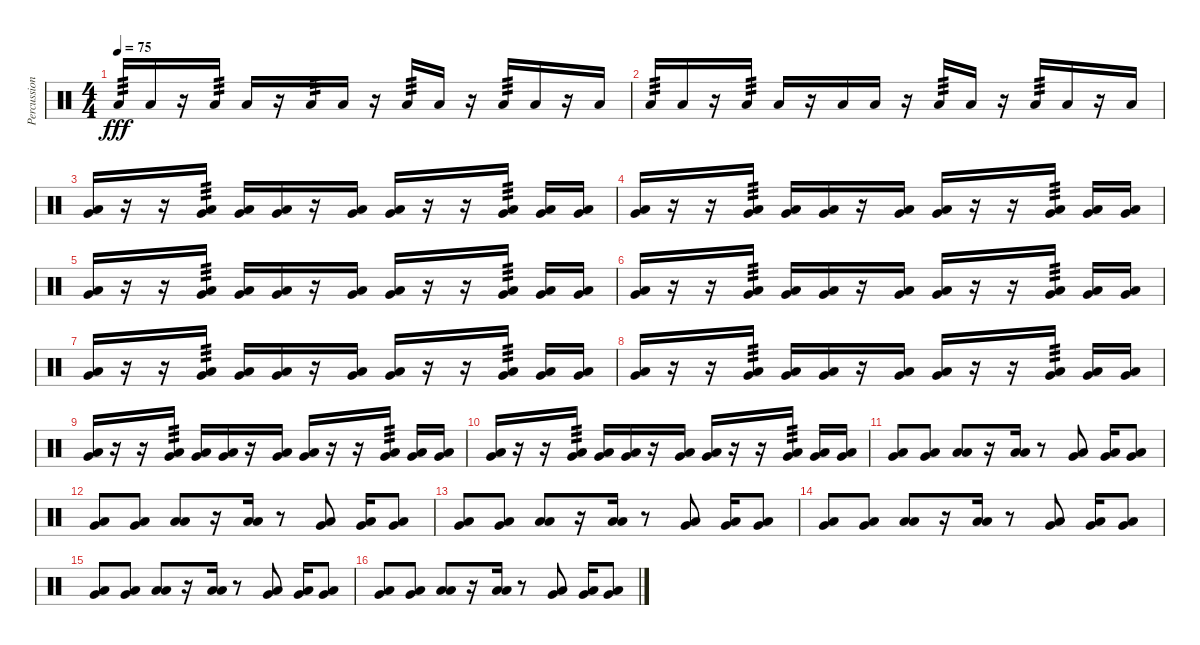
\track ("Percussion" "Percussion") {instrument percussion}
\staff {score}
\articulation defaults
\ts (4 4)
\tempo 75
\clef neutral
\ks c "Low Floor Tom (hit)".16{tp 3 dy fff} "Low Floor Tom (hit)".16
r.16 "Low Floor Tom (hit)".16{tp 3} "Low Floor Tom (hit)".16 r.16 "Low Floor Tom (hit)".16{tp 3} "Low Floor Tom (hit)".16 r.16 "Low Floor Tom (hit)".16{tp 3} "Low Floor Tom (hit)".16 r.16 "Low Floor Tom (hit)".16{tp 3} "Low Floor Tom (hit)".16 r.16 "Low Floor Tom (hit)".16 |
"Low Floor Tom (hit)".16{tp 3} "Low Floor Tom (hit)".16 r.16 "Low Floor Tom (hit)".16{tp 3} "Low Floor Tom (hit)".16 r.16 "Low Floor Tom (hit)".16 "Low Floor Tom (hit)".16 r.16 "Low Floor Tom (hit)".16{tp 3} "Low Floor Tom (hit)".16 r.16 "Low Floor Tom (hit)".16{tp 3} "Low Floor Tom (hit)".16 r.16 "Low Floor Tom (hit)".16 |
("Very Low Tom (hit)" "Low Floor Tom (hit)").16 r.16 r.16 ("Very Low Tom (hit)" "Low Floor Tom (hit)").16{tp 3} ("Very Low Tom (hit)" "Low Floor Tom (hit)").16 ("Very Low Tom (hit)" "Low Floor Tom (hit)").16 r.16 ("Very Low Tom (hit)" "Low Floor Tom (hit)").16 ("Very Low Tom (hit)" "Low Floor Tom (hit)").16 r.16 r.16 ("Very Low Tom (hit)" "Low Floor Tom (hit)").16{tp 3} ("Very Low Tom (hit)" "Low Floor Tom (hit)").16 ("Very Low Tom (hit)" "Low Floor Tom (hit)").16 |
("Very Low Tom (hit)" "Low Floor Tom (hit)").16 r.16 r.16 ("Very Low Tom (hit)" "Low Floor Tom (hit)").16{tp 3} ("Very Low Tom (hit)" "Low Floor Tom (hit)").16 ("Very Low Tom (hit)" "Low Floor Tom (hit)").16 r.16 ("Very Low Tom (hit)" "Low Floor Tom (hit)").16 ("Very Low Tom (hit)" "Low Floor Tom (hit)").16 r.16 r.16 ("Very Low Tom (hit)" "Low Floor Tom (hit)").16{tp 3} ("Very Low Tom (hit)" "Low Floor Tom (hit)").16 ("Very Low Tom (hit)" "Low Floor Tom (hit)").16 |
("Very Low Tom (hit)" "Low Floor Tom (hit)").16 r.16 r.16 ("Very Low Tom (hit)" "Low Floor Tom (hit)").16{tp 3} ("Very Low Tom (hit)" "Low Floor Tom (hit)").16 ("Very Low Tom (hit)" "Low Floor Tom (hit)").16 r.16 ("Very Low Tom (hit)" "Low Floor Tom (hit)").16 ("Very Low Tom (hit)" "Low Floor Tom (hit)").16 r.16 r.16 ("Very Low Tom (hit)" "Low Floor Tom (hit)").16{tp 3} ("Very Low Tom (hit)" "Low Floor Tom (hit)").16 ("Very Low Tom (hit)" "Low Floor Tom (hit)").16 |
("Very Low Tom (hit)" "Low Floor Tom (hit)").16 r.16 r.16 ("Very Low Tom (hit)" "Low Floor Tom (hit)").16{tp 3} ("Very Low Tom (hit)" "Low Floor Tom (hit)").16 ("Very Low Tom (hit)" "Low Floor Tom (hit)").16 r.16 ("Very Low Tom (hit)" "Low Floor Tom (hit)").16 ("Very Low Tom (hit)" "Low Floor Tom (hit)").16 r.16 r.16 ("Very Low Tom (hit)" "Low Floor Tom (hit)").16{tp 3} ("Very Low Tom (hit)" "Low Floor Tom (hit)").16 ("Very Low Tom (hit)" "Low Floor Tom (hit)").16 |
("Very Low Tom (hit)" "Low Floor Tom (hit)").16 r.16 r.16 ("Very Low Tom (hit)" "Low Floor Tom (hit)").16{tp 3} ("Very Low Tom (hit)" "Low Floor Tom (hit)").16 ("Very Low Tom (hit)" "Low Floor Tom (hit)").16 r.16 ("Very Low Tom (hit)" "Low Floor Tom (hit)").16 ("Very Low Tom (hit)" "Low Floor Tom (hit)").16 r.16 r.16 ("Very Low Tom (hit)" "Low Floor Tom (hit)").16{tp 3} ("Very Low Tom (hit)" "Low Floor Tom (hit)").16 ("Very Low Tom (hit)" "Low Floor Tom (hit)").16 |
("Very Low Tom (hit)" "Low Floor Tom (hit)").16 r.16 r.16 ("Very Low Tom (hit)" "Low Floor Tom (hit)").16{tp 3} ("Very Low Tom (hit)" "Low Floor Tom (hit)").16 ("Very Low Tom (hit)" "Low Floor Tom (hit)").16 r.16 ("Very Low Tom (hit)" "Low Floor Tom (hit)").16 ("Very Low Tom (hit)" "Low Floor Tom (hit)").16 r.16 r.16 ("Very Low Tom (hit)" "Low Floor Tom (hit)").16{tp 3} ("Very Low Tom (hit)" "Low Floor Tom (hit)").16 ("Very Low Tom (hit)" "Low Floor Tom (hit)").16 |
("Very Low Tom (hit)" "Low Floor Tom (hit)").16 r.16 r.16 ("Very Low Tom (hit)" "Low Floor Tom (hit)").16{tp 3} ("Very Low Tom (hit)" "Low Floor Tom (hit)").16 ("Very Low Tom (hit)" "Low Floor Tom (hit)").16 r.16 ("Very Low Tom (hit)" "Low Floor Tom (hit)").16 ("Very Low Tom (hit)" "Low Floor Tom (hit)").16 r.16 r.16 ("Very Low Tom (hit)" "Low Floor Tom (hit)").16{tp 3} ("Very Low Tom (hit)" "Low Floor Tom (hit)").16 ("Very Low Tom (hit)" "Low Floor Tom (hit)").16 |
("Very Low Tom (hit)" "Low Floor Tom (hit)").16 r.16 r.16 ("Very Low Tom (hit)" "Low Floor Tom (hit)").16{tp 3} ("Very Low Tom (hit)" "Low Floor Tom (hit)").16 ("Very Low Tom (hit)" "Low Floor Tom (hit)").16 r.16 ("Very Low Tom (hit)" "Low Floor Tom (hit)").16 ("Very Low Tom (hit)" "Low Floor Tom (hit)").16 r.16 r.16 ("Very Low Tom (hit)" "Low Floor Tom (hit)").16{tp 3} ("Very Low Tom (hit)" "Low Floor Tom (hit)").16 ("Very Low Tom (hit)" "Low Floor Tom (hit)").16 |
("Very Low Tom (hit)" "Low Floor Tom (hit)").8 ("Very Low Tom (hit)" "Low Floor Tom (hit)").8 ("Low Tom (hit)" "Low Tom (hit)").8 r.16 ("Low Tom (hit)" "Low Tom (hit)").16 r.8 ("Low Floor Tom (hit)" "Very Low Tom (hit)").8 ("Very Low Tom (hit)" "Low Floor Tom (hit)").16 ("Very Low Tom (hit)" "Low Floor Tom (hit)").8 |
("Very Low Tom (hit)" "Low Floor Tom (hit)").8 ("Very Low Tom (hit)" "Low Floor Tom (hit)").8 ("Low Tom (hit)" "Low Tom (hit)").8 r.16 ("Low Tom (hit)" "Low Tom (hit)").16 r.8 ("Low Floor Tom (hit)" "Very Low Tom (hit)").8 ("Very Low Tom (hit)" "Low Floor Tom (hit)").16 ("Very Low Tom (hit)" "Low Floor Tom (hit)").8 |
("Very Low Tom (hit)" "Low Floor Tom (hit)").8 ("Very Low Tom (hit)" "Low Floor Tom (hit)").8 ("Low Tom (hit)" "Low Tom (hit)").8 r.16 ("Low Tom (hit)" "Low Tom (hit)").16 r.8 ("Low Floor Tom (hit)" "Very Low Tom (hit)").8 ("Very Low Tom (hit)" "Low Floor Tom (hit)").16 ("Very Low Tom (hit)" "Low Floor Tom (hit)").8 |
("Very Low Tom (hit)" "Low Floor Tom (hit)").8 ("Very Low Tom (hit)" "Low Floor Tom (hit)").8 ("Low Tom (hit)" "Low Tom (hit)").8 r.16 ("Low Tom (hit)" "Low Tom (hit)").16 r.8 ("Low Floor Tom (hit)" "Very Low Tom (hit)").8 ("Very Low Tom (hit)" "Low Floor Tom (hit)").16 ("Very Low Tom (hit)" "Low Floor Tom (hit)").8 |
("Very Low Tom (hit)" "Low Floor Tom (hit)").8 ("Very Low Tom (hit)" "Low Floor Tom (hit)").8 ("Low Tom (hit)" "Low Tom (hit)").8 r.16 ("Low Tom (hit)" "Low Tom (hit)").16 r.8 ("Low Floor Tom (hit)" "Very Low Tom (hit)").8 ("Very Low Tom (hit)" "Low Floor Tom (hit)").16 ("Very Low Tom (hit)" "Low Floor Tom (hit)").8 |
("Very Low Tom (hit)" "Low Floor Tom (hit)").8 ("Very Low Tom (hit)" "Low Floor Tom (hit)").8 ("Low Tom (hit)" "Low Tom (hit)").8 r.16 ("Low Tom (hit)" "Low Tom (hit)").16 r.8 ("Low Floor Tom (hit)" "Very Low Tom (hit)").8 ("Very Low Tom (hit)" "Low Floor Tom (hit)").16 ("Very Low Tom (hit)" "Low Floor Tom (hit)").8
